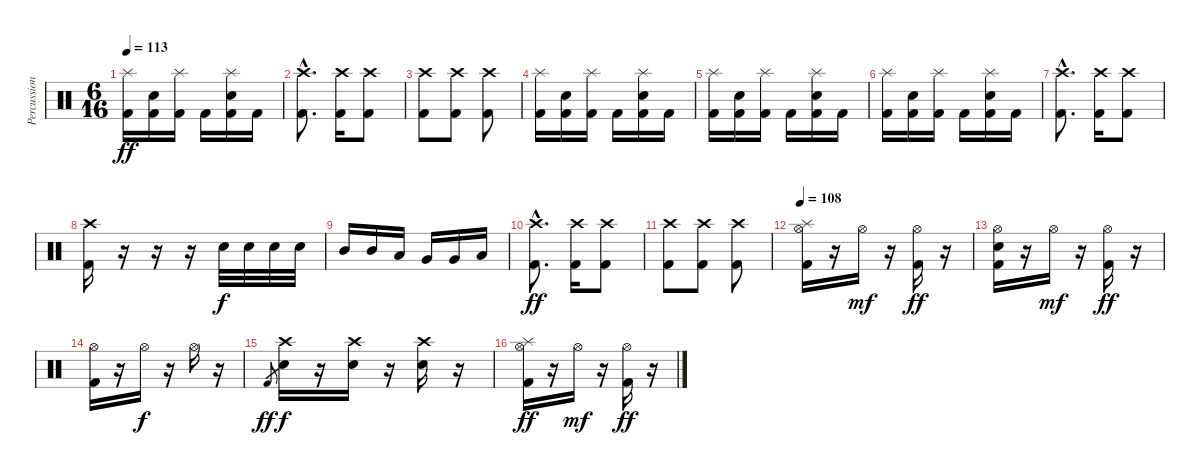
\track ("Percussion" "Percussion") {instrument percussion}
\staff {score}
\articulation defaults
\ts (6 16)
\tempo 113
\clef neutral
\ks c
("Splash (hit)" "Kick (hit) 2").16{dy ff} ("Electric Snare (hit)" "Kick (hit) 2").16 ("Splash (hit)" "Kick (hit) 2").16 "Kick (hit) 2".16 ("Splash (hit)" "Electric Snare (hit)" "Kick (hit) 2").16 "Kick (hit) 2".16 |
("Crash high (hit)"{hac} "Kick (hit) 2"{hac}).8{d} ("Crash high (hit)" "Kick (hit) 2").16 ("Crash high (hit)" "Kick (hit) 2").8 |
("Crash high (hit)" "Kick (hit) 2").8 ("Crash high (hit)" "Kick (hit) 2").8 ("Crash high (hit)" "Kick (hit) 2").8 |
("Splash (hit)" "Kick (hit) 2").16 ("Electric Snare (hit)" "Kick (hit) 2").16 ("Splash (hit)" "Kick (hit) 2").16 "Kick (hit) 2".16 ("Splash (hit)" "Electric Snare (hit)" "Kick (hit) 2").16 "Kick (hit) 2".16 |
("Splash (hit)" "Kick (hit) 2").16 ("Electric Snare (hit)" "Kick (hit) 2").16 ("Splash (hit)" "Kick (hit) 2").16 "Kick (hit) 2".16 ("Splash (hit)" "Electric Snare (hit)" "Kick (hit) 2").16 "Kick (hit) 2".16 |
("Splash (hit)" "Kick (hit) 2").16 ("Electric Snare (hit)" "Kick (hit) 2").16 ("Splash (hit)" "Kick (hit) 2").16 "Kick (hit) 2".16 ("Splash (hit)" "Electric Snare (hit)" "Kick (hit) 2").16 "Kick (hit) 2".16 |
("Crash high (hit)"{hac} "Kick (hit) 2"{hac}).8{d} ("Crash high (hit)" "Kick (hit) 2").16 ("Crash high (hit)" "Kick (hit) 2").8 |
("Crash high (hit)" "Kick (hit) 2").16 r.16 r.16 r.16 "Electric Snare (hit)".32{dy f} "Electric Snare (hit)".32 "Electric Snare (hit)".32 "Electric Snare (hit)".32 |
"Mid Tom (hit)".16 "Mid Tom (hit)".16 "Low Tom (hit)".16 "Very Low Tom (hit)".16 "Very Low Tom (hit)".16 "Low Floor Tom (hit)".16 |
("Crash high (hit)"{hac} "Kick (hit) 2"{hac}).8{d dy ff} ("Crash high (hit)" "Kick (hit) 2").16 ("Crash high (hit)" "Kick (hit) 2").8 |
("Crash high (hit)" "Kick (hit) 2").8 ("Crash high (hit)" "Kick (hit) 2").8 ("Crash high (hit)" "Kick (hit) 2").8 |
\tempo 108
("Splash (hit)" "Hi-Hat (open)" "Kick (hit) 2").16 r.16 "Hi-Hat (open)".16{dy mf} r.16 ("Hi-Hat (open)" "Kick (hit) 2").16{dy ff} r.16 |
("Hi-Hat (open)" "Electric Snare (hit)" "Kick (hit) 2").16 r.16 "Hi-Hat (open)".16{dy mf} r.16 ("Hi-Hat (open)" "Kick (hit) 2").16{dy ff} r.16 |
("Hi-Hat (open)" "Kick (hit) 2").16 r.16 "Hi-Hat (open)".16{dy f} r.16 "Hi-Hat (open)".16 r.16 |
"Kick (hit) 2".8{gr dy ff} ("Crash high (hit)" "Electric Snare (hit)").16{dy f} r.16 ("Crash high (hit)" "Electric Snare (hit)").16 r.16 ("Crash high (hit)" "Electric Snare (hit)").16 r.16 |
("Splash (hit)" "Hi-Hat (open)" "Kick (hit) 2").16{dy ff} r.16 "Hi-Hat (open)".16{dy mf} r.16 ("Hi-Hat (open)" "Kick (hit) 2").16{dy ff} r.16
